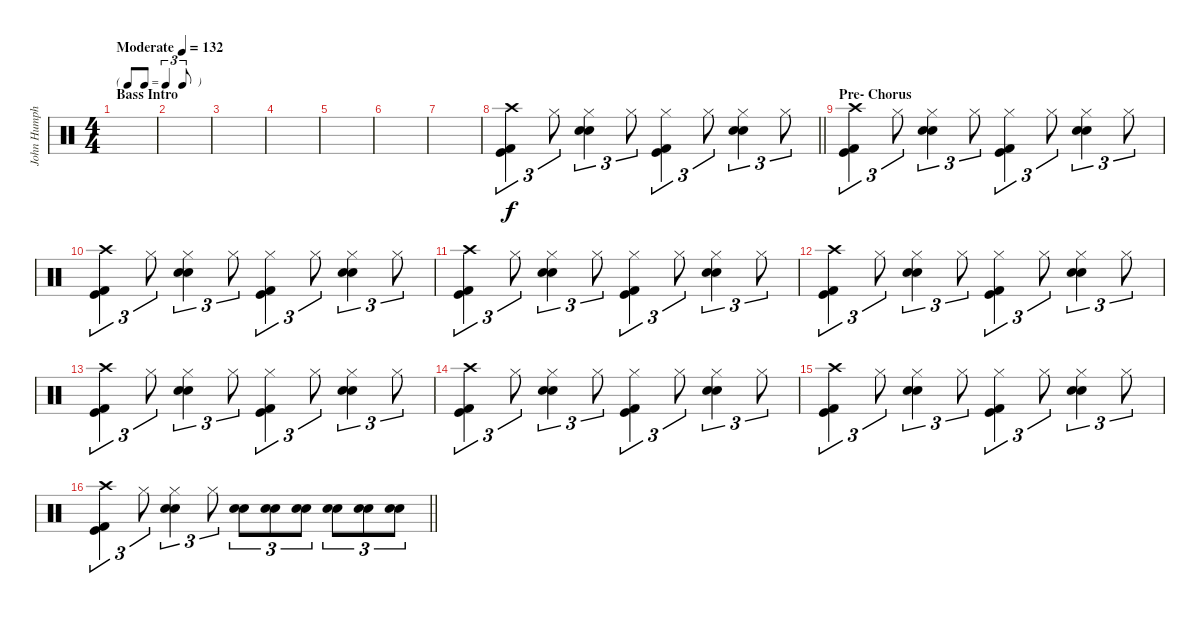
\track ("John Humphrey" "John Humph") {instrument percussion}
\staff {score}
\articulation defaults
\ts (4 4)
\tf triplet8th
\section ("" "Bass Intro")
\tempo (132 "Moderate")
\clef neutral
\ks c
|
|
|
|
|
|
|
\barLineRight lightlight
("Crash high (hit)" "Kick (hit) 2" "Kick (hit)").4{tu (3 2)} "Hi-Hat (closed)".8{tu (3 2)} ("Hi-Hat (closed)" "Electric Snare (hit)" "Snare (hit) 2").4{tu (3 2)} "Hi-Hat (closed)".8{tu (3 2)} ("Hi-Hat (closed)" "Kick (hit) 2" "Kick (hit)").4{tu (3 2)} "Hi-Hat (closed)".8{tu (3 2)} ("Hi-Hat (closed)" "Electric Snare (hit)" "Snare (hit) 2").4{tu (3 2)} "Hi-Hat (closed)".8{tu (3 2)} |
\section ("" "Pre- Chorus")
("Crash high (hit)" "Kick (hit) 2" "Kick (hit)").4{tu (3 2)} "Hi-Hat (closed)".8{tu (3 2)} ("Hi-Hat (closed)" "Electric Snare (hit)" "Snare (hit) 2").4{tu (3 2)} "Hi-Hat (closed)".8{tu (3 2)} ("Hi-Hat (closed)" "Kick (hit) 2" "Kick (hit)").4{tu (3 2)} "Hi-Hat (closed)".8{tu (3 2)} ("Hi-Hat (closed)" "Electric Snare (hit)" "Snare (hit) 2").4{tu (3 2)} "Hi-Hat (closed)".8{tu (3 2)} |
("Crash high (hit)" "Kick (hit) 2" "Kick (hit)").4{tu (3 2)} "Hi-Hat (closed)".8{tu (3 2)} ("Hi-Hat (closed)" "Electric Snare (hit)" "Snare (hit) 2").4{tu (3 2)} "Hi-Hat (closed)".8{tu (3 2)} ("Hi-Hat (closed)" "Kick (hit) 2" "Kick (hit)").4{tu (3 2)} "Hi-Hat (closed)".8{tu (3 2)} ("Hi-Hat (closed)" "Electric Snare (hit)" "Snare (hit) 2").4{tu (3 2)} "Hi-Hat (closed)".8{tu (3 2)} |
("Crash high (hit)" "Kick (hit) 2" "Kick (hit)").4{tu (3 2)} "Hi-Hat (closed)".8{tu (3 2)} ("Hi-Hat (closed)" "Electric Snare (hit)" "Snare (hit) 2").4{tu (3 2)} "Hi-Hat (closed)".8{tu (3 2)} ("Hi-Hat (closed)" "Kick (hit) 2" "Kick (hit)").4{tu (3 2)} "Hi-Hat (closed)".8{tu (3 2)} ("Hi-Hat (closed)" "Electric Snare (hit)" "Snare (hit) 2").4{tu (3 2)} "Hi-Hat (closed)".8{tu (3 2)} |
("Crash high (hit)" "Kick (hit) 2" "Kick (hit)").4{tu (3 2)} "Hi-Hat (closed)".8{tu (3 2)} ("Hi-Hat (closed)" "Electric Snare (hit)" "Snare (hit) 2").4{tu (3 2)} "Hi-Hat (closed)".8{tu (3 2)} ("Hi-Hat (closed)" "Kick (hit) 2" "Kick (hit)").4{tu (3 2)} "Hi-Hat (closed)".8{tu (3 2)} ("Hi-Hat (closed)" "Electric Snare (hit)" "Snare (hit) 2").4{tu (3 2)} "Hi-Hat (closed)".8{tu (3 2)} |
("Crash high (hit)" "Kick (hit) 2" "Kick (hit)").4{tu (3 2)} "Hi-Hat (closed)".8{tu (3 2)} ("Hi-Hat (closed)" "Electric Snare (hit)" "Snare (hit) 2").4{tu (3 2)} "Hi-Hat (closed)".8{tu (3 2)} ("Hi-Hat (closed)" "Kick (hit) 2" "Kick (hit)").4{tu (3 2)} "Hi-Hat (closed)".8{tu (3 2)} ("Hi-Hat (closed)" "Electric Snare (hit)" "Snare (hit) 2").4{tu (3 2)} "Hi-Hat (closed)".8{tu (3 2)} |
("Crash high (hit)" "Kick (hit) 2" "Kick (hit)").4{tu (3 2)} "Hi-Hat (closed)".8{tu (3 2)} ("Hi-Hat (closed)" "Electric Snare (hit)" "Snare (hit) 2").4{tu (3 2)} "Hi-Hat (closed)".8{tu (3 2)} ("Hi-Hat (closed)" "Kick (hit) 2" "Kick (hit)").4{tu (3 2)} "Hi-Hat (closed)".8{tu (3 2)} ("Hi-Hat (closed)" "Electric Snare (hit)" "Snare (hit) 2").4{tu (3 2)} "Hi-Hat (closed)".8{tu (3 2)} |
("Crash high (hit)" "Kick (hit) 2" "Kick (hit)").4{tu (3 2)} "Hi-Hat (closed)".8{tu (3 2)} ("Hi-Hat (closed)" "Electric Snare (hit)" "Snare (hit) 2").4{tu (3 2)} "Hi-Hat (closed)".8{tu (3 2)} ("Hi-Hat (closed)" "Kick (hit) 2" "Kick (hit)").4{tu (3 2)} "Hi-Hat (closed)".8{tu (3 2)} ("Hi-Hat (closed)" "Electric Snare (hit)" "Snare (hit) 2").4{tu (3 2)} "Hi-Hat (closed)".8{tu (3 2)} |
\barLineRight lightlight
("Crash high (hit)" "Kick (hit) 2" "Kick (hit)").4{tu (3 2)} "Hi-Hat (closed)".8{tu (3 2)} ("Hi-Hat (closed)" "Electric Snare (hit)" "Snare (hit) 2").4{tu (3 2)} "Hi-Hat (closed)".8{tu (3 2)} ("Electric Snare (hit)" "Snare (hit) 2").8{tu (3 2)} ("Electric Snare (hit)" "Snare (hit) 2").8{tu (3 2)} ("Electric Snare (hit)" "Snare (hit) 2").8{tu (3 2)} ("Electric Snare (hit)" "Snare (hit) 2").8{tu (3 2)} ("Electric Snare (hit)" "Snare (hit) 2").8{tu (3 2)} ("Electric Snare (hit)" "Snare (hit) 2").8{tu (3 2)}
